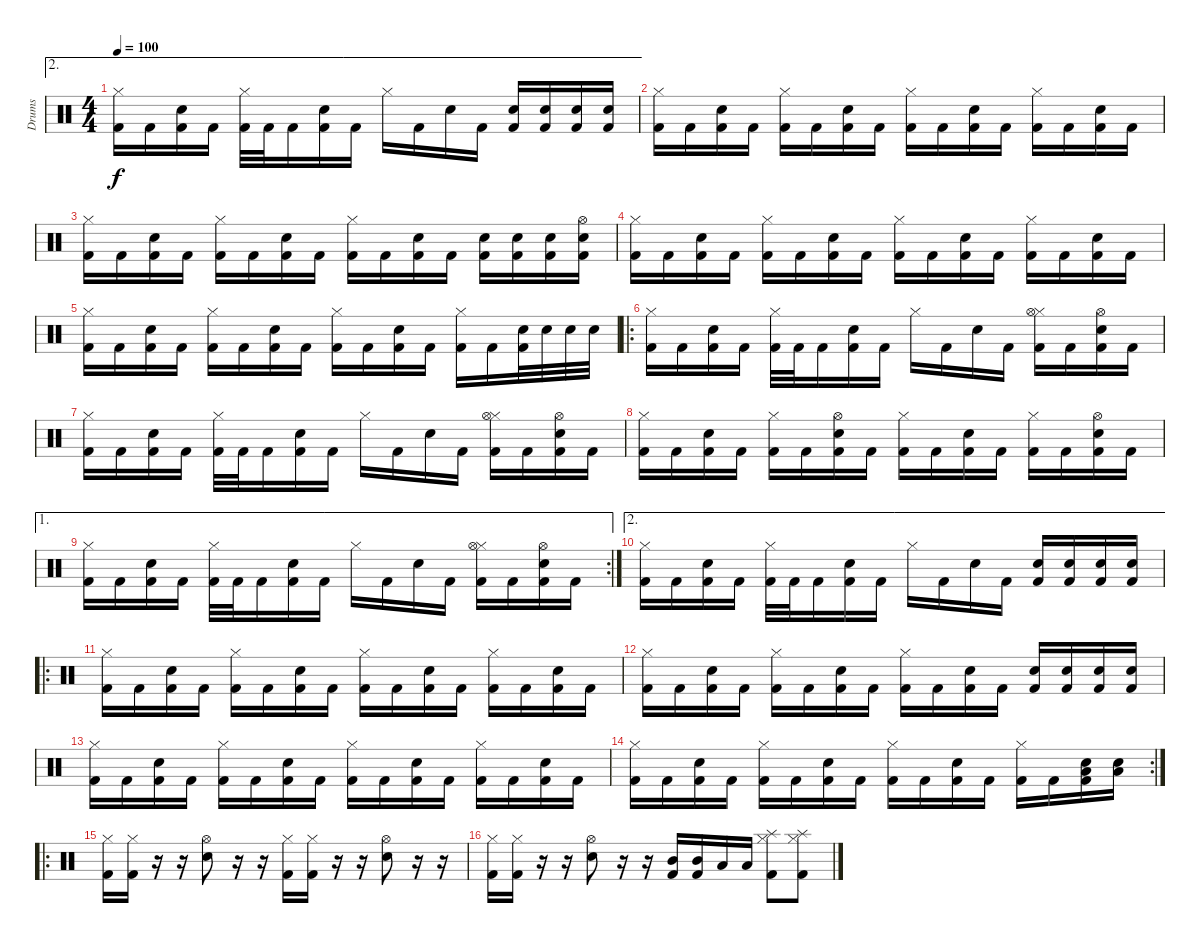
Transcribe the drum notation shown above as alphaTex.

\track ("Drums" "Drums") {instrument percussion}
\staff {score}
\articulation defaults
\ae 2
\ts (4 4)
\tempo 100
\clef neutral
\ks c
("Kick (hit) 2" "Hi-Hat (closed)").16{dy f} "Kick (hit) 2".16 ("Kick (hit) 2" "Snare (hit) 2").16 "Kick (hit) 2".16 ("Kick (hit) 2" "Hi-Hat (closed)").32 "Kick (hit) 2".32 "Kick (hit) 2".16 ("Kick (hit) 2" "Snare (hit) 2").16 "Kick (hit) 2".16 "Hi-Hat (closed)".16 "Kick (hit) 2".16 "Snare (hit) 2".16 "Kick (hit) 2".16 ("Kick (hit) 2" "Snare (hit) 2").16 ("Kick (hit) 2" "Snare (hit) 2").16 ("Kick (hit) 2" "Snare (hit) 2").16 ("Kick (hit) 2" "Snare (hit) 2").16 |
("Kick (hit) 2" "Hi-Hat (closed)").16 "Kick (hit) 2".16 ("Kick (hit) 2" "Snare (hit) 2").16 "Kick (hit) 2".16 ("Kick (hit) 2" "Hi-Hat (closed)").16 "Kick (hit) 2".16 ("Kick (hit) 2" "Snare (hit) 2").16 "Kick (hit) 2".16 ("Kick (hit) 2" "Hi-Hat (closed)").16 "Kick (hit) 2".16 ("Kick (hit) 2" "Snare (hit) 2").16 "Kick (hit) 2".16 ("Kick (hit) 2" "Hi-Hat (closed)").16 "Kick (hit) 2".16 ("Kick (hit) 2" "Snare (hit) 2").16 "Kick (hit) 2".16 |
("Kick (hit) 2" "Hi-Hat (closed)").16 "Kick (hit) 2".16 ("Kick (hit) 2" "Snare (hit) 2").16 "Kick (hit) 2".16 ("Kick (hit) 2" "Hi-Hat (closed)").16 "Kick (hit) 2".16 ("Kick (hit) 2" "Snare (hit) 2").16 "Kick (hit) 2".16 ("Kick (hit) 2" "Hi-Hat (closed)").16 "Kick (hit) 2".16 ("Kick (hit) 2" "Snare (hit) 2").16 "Kick (hit) 2".16 ("Kick (hit) 2" "Snare (hit) 2").16 ("Kick (hit) 2" "Snare (hit) 2").16 ("Kick (hit) 2" "Snare (hit) 2").16 ("Kick (hit) 2" "Snare (hit) 2" "Hi-Hat (open)").16 |
("Kick (hit) 2" "Hi-Hat (closed)").16 "Kick (hit) 2".16 ("Kick (hit) 2" "Snare (hit) 2").16 "Kick (hit) 2".16 ("Kick (hit) 2" "Hi-Hat (closed)").16 "Kick (hit) 2".16 ("Kick (hit) 2" "Snare (hit) 2").16 "Kick (hit) 2".16 ("Kick (hit) 2" "Hi-Hat (closed)").16 "Kick (hit) 2".16 ("Kick (hit) 2" "Snare (hit) 2").16 "Kick (hit) 2".16 ("Kick (hit) 2" "Hi-Hat (closed)").16 "Kick (hit) 2".16 ("Kick (hit) 2" "Snare (hit) 2").16 "Kick (hit) 2".16 |
("Kick (hit) 2" "Hi-Hat (closed)").16 "Kick (hit) 2".16 ("Kick (hit) 2" "Snare (hit) 2").16 "Kick (hit) 2".16 ("Kick (hit) 2" "Hi-Hat (closed)").16 "Kick (hit) 2".16 ("Kick (hit) 2" "Snare (hit) 2").16 "Kick (hit) 2".16 ("Kick (hit) 2" "Hi-Hat (closed)").16 "Kick (hit) 2".16 ("Kick (hit) 2" "Snare (hit) 2").16 "Kick (hit) 2".16 ("Kick (hit) 2" "Hi-Hat (closed)").16 "Kick (hit) 2".16 ("Kick (hit) 2" "Snare (hit) 2").32 "Snare (hit) 2".32 "Snare (hit) 2".32 "Snare (hit) 2".32 |
\ro
("Kick (hit) 2" "Hi-Hat (closed)").16 "Kick (hit) 2".16 ("Kick (hit) 2" "Snare (hit) 2").16 "Kick (hit) 2".16 ("Kick (hit) 2" "Hi-Hat (closed)").32 "Kick (hit) 2".32 "Kick (hit) 2".16 ("Kick (hit) 2" "Snare (hit) 2").16 "Kick (hit) 2".16 "Hi-Hat (closed)".16 "Kick (hit) 2".16 "Snare (hit) 2".16 "Kick (hit) 2".16 ("Kick (hit) 2" "Hi-Hat (closed)" "Hi-Hat (open)").16 "Kick (hit) 2".16 ("Kick (hit) 2" "Snare (hit) 2" "Hi-Hat (open)").16 "Kick (hit) 2".16 |
("Kick (hit) 2" "Hi-Hat (closed)").16 "Kick (hit) 2".16 ("Kick (hit) 2" "Snare (hit) 2").16 "Kick (hit) 2".16 ("Kick (hit) 2" "Hi-Hat (closed)").32 "Kick (hit) 2".32 "Kick (hit) 2".16 ("Kick (hit) 2" "Snare (hit) 2").16 "Kick (hit) 2".16 "Hi-Hat (closed)".16 "Kick (hit) 2".16 "Snare (hit) 2".16 "Kick (hit) 2".16 ("Kick (hit) 2" "Hi-Hat (closed)" "Hi-Hat (open)").16 "Kick (hit) 2".16 ("Kick (hit) 2" "Snare (hit) 2" "Hi-Hat (open)").16 "Kick (hit) 2".16 |
("Kick (hit) 2" "Hi-Hat (closed)").16 "Kick (hit) 2".16 ("Kick (hit) 2" "Snare (hit) 2").16 "Kick (hit) 2".16 ("Kick (hit) 2" "Hi-Hat (closed)").16 "Kick (hit) 2".16 ("Kick (hit) 2" "Snare (hit) 2" "Hi-Hat (open)").16 "Kick (hit) 2".16 ("Kick (hit) 2" "Hi-Hat (closed)").16 "Kick (hit) 2".16 ("Kick (hit) 2" "Snare (hit) 2").16 "Kick (hit) 2".16 ("Kick (hit) 2" "Hi-Hat (closed)").16 "Kick (hit) 2".16 ("Kick (hit) 2" "Snare (hit) 2" "Hi-Hat (open)").16 "Kick (hit) 2".16 |
\ae 1
\rc 2
("Kick (hit) 2" "Hi-Hat (closed)").16 "Kick (hit) 2".16 ("Kick (hit) 2" "Snare (hit) 2").16 "Kick (hit) 2".16 ("Kick (hit) 2" "Hi-Hat (closed)").32 "Kick (hit) 2".32 "Kick (hit) 2".16 ("Kick (hit) 2" "Snare (hit) 2").16 "Kick (hit) 2".16 "Hi-Hat (closed)".16 "Kick (hit) 2".16 "Snare (hit) 2".16 "Kick (hit) 2".16 ("Kick (hit) 2" "Hi-Hat (closed)" "Hi-Hat (open)").16 "Kick (hit) 2".16 ("Kick (hit) 2" "Snare (hit) 2" "Hi-Hat (open)").16 "Kick (hit) 2".16 |
\ae 2
("Kick (hit) 2" "Hi-Hat (closed)").16 "Kick (hit) 2".16 ("Kick (hit) 2" "Snare (hit) 2").16 "Kick (hit) 2".16 ("Kick (hit) 2" "Hi-Hat (closed)").32 "Kick (hit) 2".32 "Kick (hit) 2".16 ("Kick (hit) 2" "Snare (hit) 2").16 "Kick (hit) 2".16 "Hi-Hat (closed)".16 "Kick (hit) 2".16 "Snare (hit) 2".16 "Kick (hit) 2".16 ("Kick (hit) 2" "Snare (hit) 2").16 ("Kick (hit) 2" "Snare (hit) 2").16 ("Kick (hit) 2" "Snare (hit) 2").16 ("Kick (hit) 2" "Snare (hit) 2").16 |
\ro
("Kick (hit) 2" "Hi-Hat (closed)").16 "Kick (hit) 2".16 ("Kick (hit) 2" "Snare (hit) 2").16 "Kick (hit) 2".16 ("Kick (hit) 2" "Hi-Hat (closed)").16 "Kick (hit) 2".16 ("Kick (hit) 2" "Snare (hit) 2").16 "Kick (hit) 2".16 ("Kick (hit) 2" "Hi-Hat (closed)").16 "Kick (hit) 2".16 ("Kick (hit) 2" "Snare (hit) 2").16 "Kick (hit) 2".16 ("Kick (hit) 2" "Hi-Hat (closed)").16 "Kick (hit) 2".16 ("Kick (hit) 2" "Snare (hit) 2").16 "Kick (hit) 2".16 |
("Kick (hit) 2" "Hi-Hat (closed)").16 "Kick (hit) 2".16 ("Kick (hit) 2" "Snare (hit) 2").16 "Kick (hit) 2".16 ("Kick (hit) 2" "Hi-Hat (closed)").16 "Kick (hit) 2".16 ("Kick (hit) 2" "Snare (hit) 2").16 "Kick (hit) 2".16 ("Kick (hit) 2" "Hi-Hat (closed)").16 "Kick (hit) 2".16 ("Kick (hit) 2" "Snare (hit) 2").16 "Kick (hit) 2".16 ("Kick (hit) 2" "Snare (hit) 2").16 ("Kick (hit) 2" "Snare (hit) 2").16 ("Kick (hit) 2" "Snare (hit) 2").16 ("Kick (hit) 2" "Snare (hit) 2").16 |
("Kick (hit) 2" "Hi-Hat (closed)").16 "Kick (hit) 2".16 ("Kick (hit) 2" "Snare (hit) 2").16 "Kick (hit) 2".16 ("Kick (hit) 2" "Hi-Hat (closed)").16 "Kick (hit) 2".16 ("Kick (hit) 2" "Snare (hit) 2").16 "Kick (hit) 2".16 ("Kick (hit) 2" "Hi-Hat (closed)").16 "Kick (hit) 2".16 ("Kick (hit) 2" "Snare (hit) 2").16 "Kick (hit) 2".16 ("Kick (hit) 2" "Hi-Hat (closed)").16 "Kick (hit) 2".16 ("Kick (hit) 2" "Snare (hit) 2").16 "Kick (hit) 2".16 |
\rc 2
("Kick (hit) 2" "Hi-Hat (closed)").16 "Kick (hit) 2".16 ("Kick (hit) 2" "Snare (hit) 2").16 "Kick (hit) 2".16 ("Kick (hit) 2" "Hi-Hat (closed)").16 "Kick (hit) 2".16 ("Kick (hit) 2" "Snare (hit) 2").16 "Kick (hit) 2".16 ("Kick (hit) 2" "Hi-Hat (closed)").16 "Kick (hit) 2".16 ("Kick (hit) 2" "Snare (hit) 2").16 "Kick (hit) 2".16 ("Kick (hit) 2" "Hi-Hat (closed)").16 "Kick (hit) 2".16 ("Kick (hit) 2" "Snare (hit) 2" "Low Tom (hit)").16 ("Snare (hit) 2" "Low Tom (hit)").16 |
\ro
("Kick (hit) 2" "Hi-Hat (closed)").16 ("Kick (hit) 2" "Hi-Hat (closed)").16 r.16 r.16 ("Snare (hit) 2" "Hi-Hat (open)").8 r.16 r.16 ("Kick (hit) 2" "Hi-Hat (closed)").16 ("Kick (hit) 2" "Hi-Hat (closed)").16 r.16 r.16 ("Snare (hit) 2" "Hi-Hat (open)").8 r.16 r.16 |
("Kick (hit) 2" "Hi-Hat (closed)").16 ("Kick (hit) 2" "Hi-Hat (closed)").16 r.16 r.16 ("Snare (hit) 2" "Hi-Hat (open)").8 r.16 r.16 ("Kick (hit) 2" "Mid Tom (hit)").16 ("Kick (hit) 2" "Mid Tom (hit)").16 "Low Tom (hit)".16 "Low Tom (hit)".16 ("Kick (hit) 2" "Splash (hit)" "Hi-Hat (closed)").8 ("Kick (hit) 2" "Splash (hit)" "Hi-Hat (closed)").8
